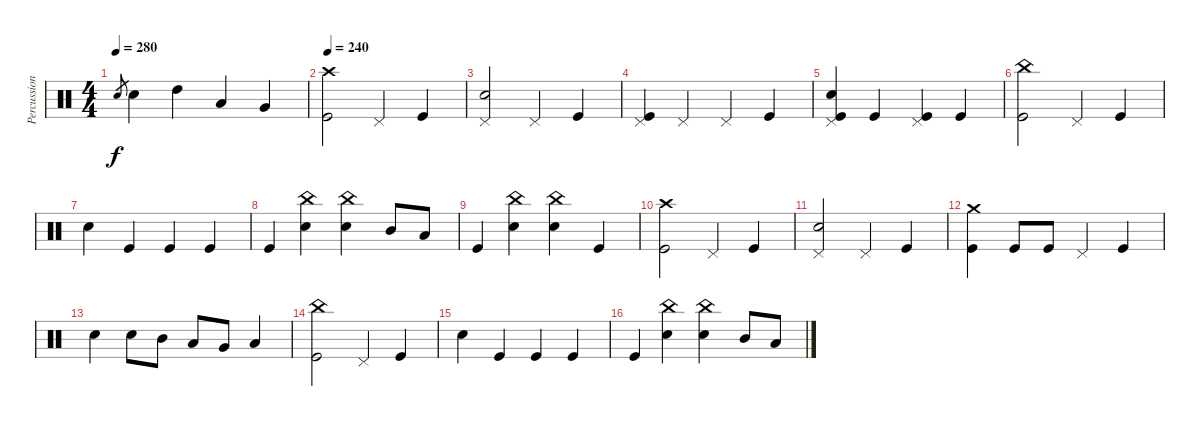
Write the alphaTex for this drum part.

\track ("Percussion" "Percussion") {instrument percussion}
\staff {score}
\articulation defaults
\ts (4 4)
\tempo 280
\clef neutral
\ks c "Snare (hit) 2".8{gr dy f} "Snare (hit) 2".4 "High Tom (hit)".4 "Low Tom (hit)".4 "Very Low Tom (hit)".4
|
\tempo 240
("Crash high (hit)" "Kick (hit)").2 "Pedal Hi-Hat (hit)".4 "Kick (hit)".4 |
("Snare (hit) 2" "Pedal Hi-Hat (hit)").2 "Pedal Hi-Hat (hit)".4 "Kick (hit)".4 |
("Kick (hit)" "Pedal Hi-Hat (hit)").4 "Pedal Hi-Hat (hit)".4 "Pedal Hi-Hat (hit)".4 "Kick (hit)".4 |
("Kick (hit)" "Snare (hit) 2" "Pedal Hi-Hat (hit)").4 "Kick (hit)".4 ("Kick (hit)" "Pedal Hi-Hat (hit)").4 "Kick (hit)".4 |
("Kick (hit)" "China (hit)").2 "Pedal Hi-Hat (hit)".4 "Kick (hit)".4 |
"Snare (hit) 2".4 "Kick (hit)".4 "Kick (hit)".4 "Kick (hit)".4 |
"Kick (hit)".4 ("Snare (hit) 2" "China (hit)").4 ("Snare (hit) 2" "China (hit)").4 "Mid Tom (hit)".8 "Low Tom (hit)".8 |
"Kick (hit)".4 ("Snare (hit) 2" "China (hit)").4 ("China (hit)" "Snare (hit) 2").4 "Kick (hit)".4 |
("Kick (hit)" "Crash high (hit)").2 "Pedal Hi-Hat (hit)".4 "Kick (hit)".4 |
("Pedal Hi-Hat (hit)" "Snare (hit) 2").2 "Pedal Hi-Hat (hit)".4 "Kick (hit)".4 |
("Kick (hit)" "Crash medium (hit)").4 "Kick (hit)".8 "Kick (hit)".8 "Pedal Hi-Hat (hit)".4 "Kick (hit)".4 |
"Snare (hit) 2".4 "Snare (hit) 2".8 "Mid Tom (hit)".8 "Low Tom (hit)".8 "Very Low Tom (hit)".8 "Low Floor Tom (hit)".4 |
("Kick (hit)" "China (hit)").2 "Pedal Hi-Hat (hit)".4 "Kick (hit)".4 |
"Snare (hit) 2".4 "Kick (hit)".4 "Kick (hit)".4 "Kick (hit)".4 |
"Kick (hit)".4 ("Snare (hit) 2" "China (hit)").4 ("Snare (hit) 2" "China (hit)").4 "Mid Tom (hit)".8 "Low Tom (hit)".8
